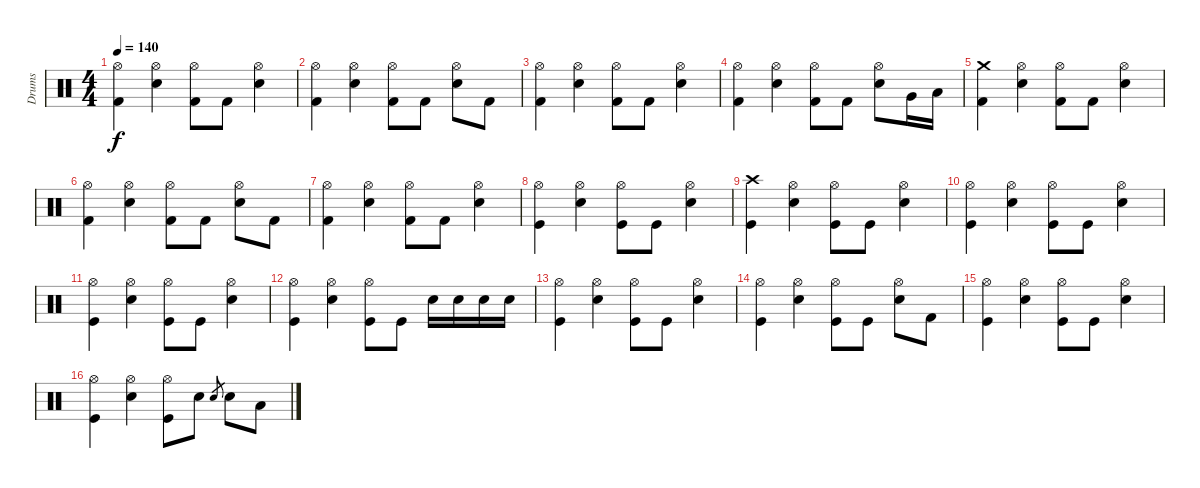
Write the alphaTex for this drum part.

\track ("Drums" "Drums") {instrument percussion}
\staff {score}
\articulation defaults
\ts (4 4)
\tempo 140
\clef neutral
\ks c
("Hi-Hat (open)" "Kick (hit) 2").4{dy f} ("Hi-Hat (open)" "Snare (hit) 2").4 ("Hi-Hat (open)" "Kick (hit) 2").8 "Kick (hit) 2".8 ("Hi-Hat (open)" "Snare (hit) 2").4 |
("Hi-Hat (open)" "Kick (hit) 2").4 ("Hi-Hat (open)" "Snare (hit) 2").4 ("Hi-Hat (open)" "Kick (hit) 2").8 "Kick (hit) 2".8 ("Hi-Hat (open)" "Snare (hit) 2").8 "Kick (hit) 2".8 |
("Hi-Hat (open)" "Kick (hit) 2").4 ("Hi-Hat (open)" "Snare (hit) 2").4 ("Hi-Hat (open)" "Kick (hit) 2").8 "Kick (hit) 2".8 ("Hi-Hat (open)" "Snare (hit) 2").4 |
("Hi-Hat (open)" "Kick (hit) 2").4 ("Hi-Hat (open)" "Snare (hit) 2").4 ("Hi-Hat (open)" "Kick (hit) 2").8 "Kick (hit) 2".8 ("Hi-Hat (open)" "Snare (hit) 2").8 "Very Low Tom (hit)".16 "Low Floor Tom (hit)".16 |
("Crash medium (hit)" "Kick (hit) 2").4 ("Hi-Hat (open)" "Snare (hit) 2").4 ("Hi-Hat (open)" "Kick (hit) 2").8 "Kick (hit) 2".8 ("Hi-Hat (open)" "Snare (hit) 2").4 |
("Hi-Hat (open)" "Kick (hit) 2").4 ("Hi-Hat (open)" "Snare (hit) 2").4 ("Hi-Hat (open)" "Kick (hit) 2").8 "Kick (hit) 2".8 ("Hi-Hat (open)" "Snare (hit) 2").8 "Kick (hit) 2".8 |
("Hi-Hat (open)" "Kick (hit) 2").4 ("Hi-Hat (open)" "Snare (hit) 2").4 ("Hi-Hat (open)" "Kick (hit) 2").8 "Kick (hit) 2".8 ("Hi-Hat (open)" "Snare (hit) 2").4 |
("Hi-Hat (open)" "Kick (hit)").4 ("Hi-Hat (open)" "Snare (hit) 2").4 ("Hi-Hat (open)" "Kick (hit)").8 "Kick (hit)".8 ("Hi-Hat (open)" "Snare (hit) 2").4 |
("Crash high (hit)" "Kick (hit)").4 ("Hi-Hat (open)" "Snare (hit) 2").4 ("Hi-Hat (open)" "Kick (hit)").8 "Kick (hit)".8 ("Hi-Hat (open)" "Snare (hit) 2").4 |
("Hi-Hat (open)" "Kick (hit)").4 ("Hi-Hat (open)" "Snare (hit) 2").4 ("Hi-Hat (open)" "Kick (hit)").8 "Kick (hit)".8 ("Hi-Hat (open)" "Snare (hit) 2").4 |
("Hi-Hat (open)" "Kick (hit)").4 ("Hi-Hat (open)" "Snare (hit) 2").4 ("Hi-Hat (open)" "Kick (hit)").8 "Kick (hit)".8 ("Hi-Hat (open)" "Snare (hit) 2").4 |
("Hi-Hat (open)" "Kick (hit)").4 ("Hi-Hat (open)" "Snare (hit) 2").4 ("Hi-Hat (open)" "Kick (hit)").8 "Kick (hit)".8 "Snare (hit) 2".16 "Snare (hit) 2".16 "Snare (hit) 2".16 "Snare (hit) 2".16 |
("Hi-Hat (open)" "Kick (hit)").4 ("Hi-Hat (open)" "Snare (hit) 2").4 ("Hi-Hat (open)" "Kick (hit)").8 "Kick (hit)".8 ("Hi-Hat (open)" "Snare (hit) 2").4 |
("Hi-Hat (open)" "Kick (hit)").4 ("Hi-Hat (open)" "Snare (hit) 2").4 ("Hi-Hat (open)" "Kick (hit)").8 "Kick (hit)".8 ("Hi-Hat (open)" "Snare (hit) 2").8 "Kick (hit) 2".8 |
("Hi-Hat (open)" "Kick (hit)").4 ("Hi-Hat (open)" "Snare (hit) 2").4 ("Hi-Hat (open)" "Kick (hit)").8 "Kick (hit)".8 ("Hi-Hat (open)" "Snare (hit) 2").4 |
("Hi-Hat (open)" "Kick (hit)").4 ("Hi-Hat (open)" "Snare (hit) 2").4 ("Hi-Hat (open)" "Kick (hit)").8 "Snare (hit) 2".8 "Snare (hit) 2".8{gr} "Snare (hit) 2".8 "Low Tom (hit)".8
